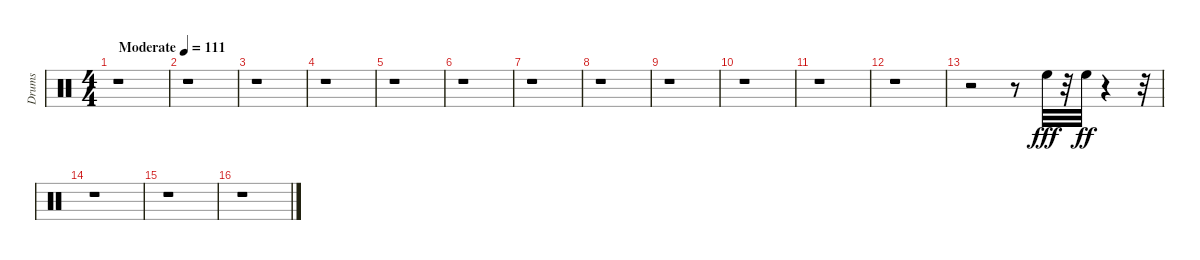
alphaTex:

\track ("Drums" "Drums") {instrument percussion}
\staff {score}
\articulation defaults
\ts (4 4)
\tempo (111 "Moderate")
\clef neutral
\ks c
r.1{dy fff} |
r.1 |
r.1 |
r.1 |
r.1 |
r.1 |
r.1 |
r.1 |
r.1 |
r.1 |
r.1 |
r.1 |
r.2 r.8 "High Floor Tom (hit)".32 r.32 "High Floor Tom (hit)".32{dy ff} r.4 r.32 |
r.1 |
r.1 |
r.1
